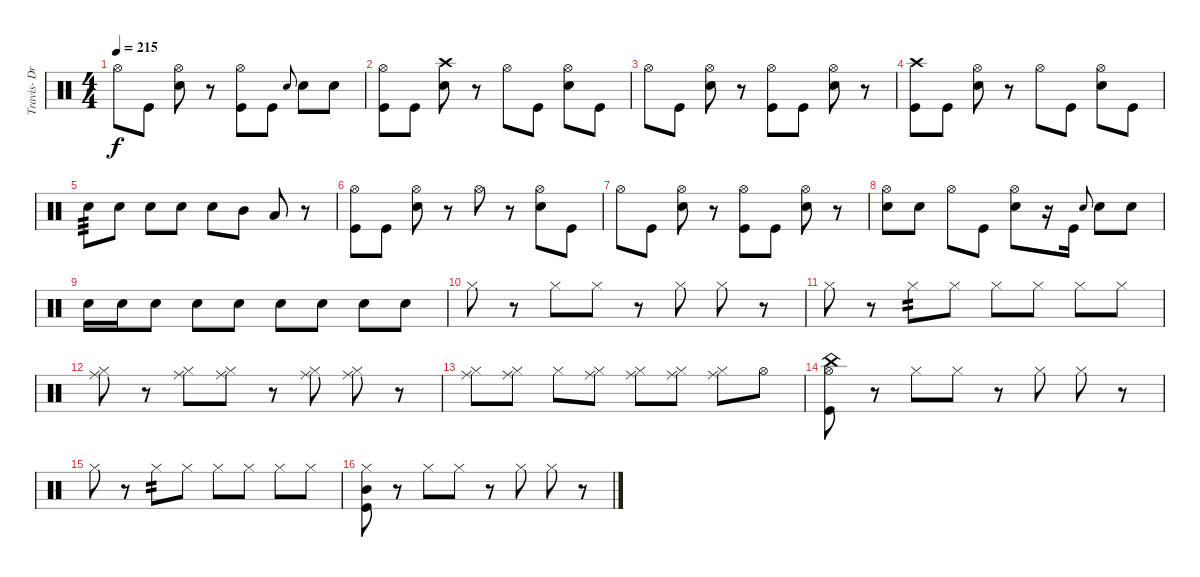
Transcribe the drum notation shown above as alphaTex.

\track ("Travis- Drums" "Travis- Dr") {instrument percussion}
\staff {score}
\articulation defaults
\ts (4 4)
\tempo 215
\clef neutral
\ks c "Hi-Hat (open)".8{dy f} "Kick (hit)".8
("Hi-Hat (open)" "Electric Snare (hit)").8 r.8 ("Hi-Hat (open)" "Kick (hit)").8 "Kick (hit)".8 "Electric Snare (hit)".8{gr onbeat} "Electric Snare (hit)".8 "Electric Snare (hit)".8 |
("Hi-Hat (open)" "Kick (hit)").8 "Kick (hit)".8 ("Crash high (hit)" "Electric Snare (hit)").8 r.8 "Hi-Hat (open)".8 "Kick (hit)".8 ("Hi-Hat (open)" "Electric Snare (hit)").8 "Kick (hit)".8 |
"Hi-Hat (open)".8 "Kick (hit)".8 ("Hi-Hat (open)" "Electric Snare (hit)").8 r.8 ("Hi-Hat (open)" "Kick (hit)").8 "Kick (hit)".8 ("Hi-Hat (open)" "Electric Snare (hit)").8 r.8 |
("Crash high (hit)" "Kick (hit)").8 "Kick (hit)".8 ("Hi-Hat (open)" "Electric Snare (hit)").8 r.8 "Hi-Hat (open)".8 "Kick (hit)".8 ("Hi-Hat (open)" "Electric Snare (hit)").8 "Kick (hit)".8 |
"Electric Snare (hit)".8{tp 3} "Electric Snare (hit)".8 "Electric Snare (hit)".8 "Electric Snare (hit)".8 "Electric Snare (hit)".8 "Mid Tom (hit)".8 "Low Tom (hit)".8 r.8 |
("Hi-Hat (open)" "Kick (hit)").8 "Kick (hit)".8 ("Hi-Hat (open)" "Electric Snare (hit)").8 r.8 "Hi-Hat (open)".8 r.8 ("Hi-Hat (open)" "Electric Snare (hit)").8 "Kick (hit)".8 |
"Hi-Hat (open)".8 "Kick (hit)".8 ("Hi-Hat (open)" "Electric Snare (hit)").8 r.8 ("Hi-Hat (open)" "Kick (hit)").8 "Kick (hit)".8 ("Hi-Hat (open)" "Electric Snare (hit)").8 r.8 |
("Hi-Hat (open)" "Electric Snare (hit)").8 "Electric Snare (hit)".8 "Hi-Hat (open)".8 "Kick (hit)".8 ("Hi-Hat (open)" "Electric Snare (hit)").8 r.16 "Kick (hit)".16 "Electric Snare (hit)".8{gr onbeat} "Electric Snare (hit)".8 "Electric Snare (hit)".8 |
"Electric Snare (hit)".16 "Electric Snare (hit)".16 "Electric Snare (hit)".8 "Electric Snare (hit)".8 "Electric Snare (hit)".8 "Electric Snare (hit)".8 "Electric Snare (hit)".8 "Electric Snare (hit)".8 "Electric Snare (hit)".8 |
"Hi-Hat (closed)".8 r.8 "Hi-Hat (closed)".8 "Hi-Hat (closed)".8 r.8 "Hi-Hat (closed)".8 "Hi-Hat (closed)".8 r.8 |
"Hi-Hat (closed)".8 r.8 "Hi-Hat (closed)".8{tp 2} "Hi-Hat (closed)".8 "Hi-Hat (closed)".8 "Hi-Hat (closed)".8 "Hi-Hat (closed)".8 "Hi-Hat (closed)".8 |
("Ride (middle)" "Hi-Hat (closed)").8 r.8 ("Ride (middle)" "Hi-Hat (closed)").8 ("Ride (middle)" "Hi-Hat (closed)").8 r.8 ("Ride (middle)" "Hi-Hat (closed)").8 ("Ride (middle)" "Hi-Hat (closed)").8 r.8 |
("Ride (middle)" "Hi-Hat (closed)").8 ("Ride (middle)" "Hi-Hat (closed)").8 "Hi-Hat (closed)".8 ("Ride (middle)" "Hi-Hat (closed)").8 ("Ride (middle)" "Hi-Hat (closed)").8 ("Ride (middle)" "Hi-Hat (closed)").8 ("Ride (middle)" "Hi-Hat (closed)").8 "Hi-Hat (open)".8 |
("Hi-Hat (open)" "China (hit)" "Kick (hit)").8 r.8 "Hi-Hat (closed)".8 "Hi-Hat (closed)".8 r.8 "Hi-Hat (closed)".8 "Hi-Hat (closed)".8 r.8 |
"Hi-Hat (closed)".8 r.8 "Hi-Hat (closed)".8{tp 2} "Hi-Hat (closed)".8 "Hi-Hat (closed)".8 "Hi-Hat (closed)".8 "Hi-Hat (closed)".8 "Hi-Hat (closed)".8 |
("Mid Tom (hit)" "Kick (hit)" "Hi-Hat (closed)").8 r.8 "Hi-Hat (closed)".8 "Hi-Hat (closed)".8 r.8 "Hi-Hat (closed)".8 "Hi-Hat (closed)".8 r.8
